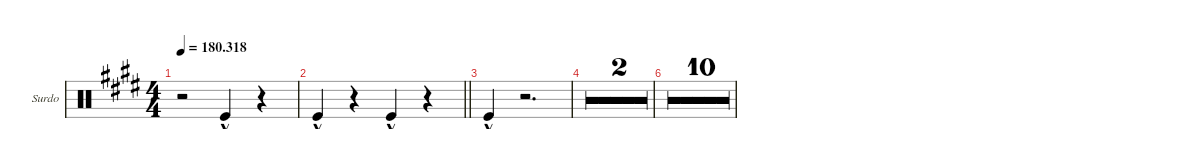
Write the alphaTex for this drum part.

\defaultSystemsLayout 4
\hideDynamics
\bracketExtendMode groupsimilarinstruments
\firstSystemTrackNameOrientation horizontal
\otherSystemsTrackNameOrientation horizontal
\track ("Surdo" "Surdo") {multiBarRest instrument percussion}
\staff {score}
\articulation defaults
\ts (4 4)
\tempo
180.318
\accidentals auto
\clef neutral
\ottava regular
\simile none
\ks e
r.2{dy fff} "Kick (hit)"{hac}.4 r.4 |
\barLineRight lightlight "Kick (hit)"{hac}.4
r.4 "Kick (hit)"{hac}.4 r.4 |
"Kick (hit)"{hac}.4 r.2{d} |
r.1 |
r.1 |
\tempo 70
r.1 |
r.1 |
r.1 |
r.1 |
r.1 |
r.1 |
r.1 |
r.1 |
r.1 |
r.1
